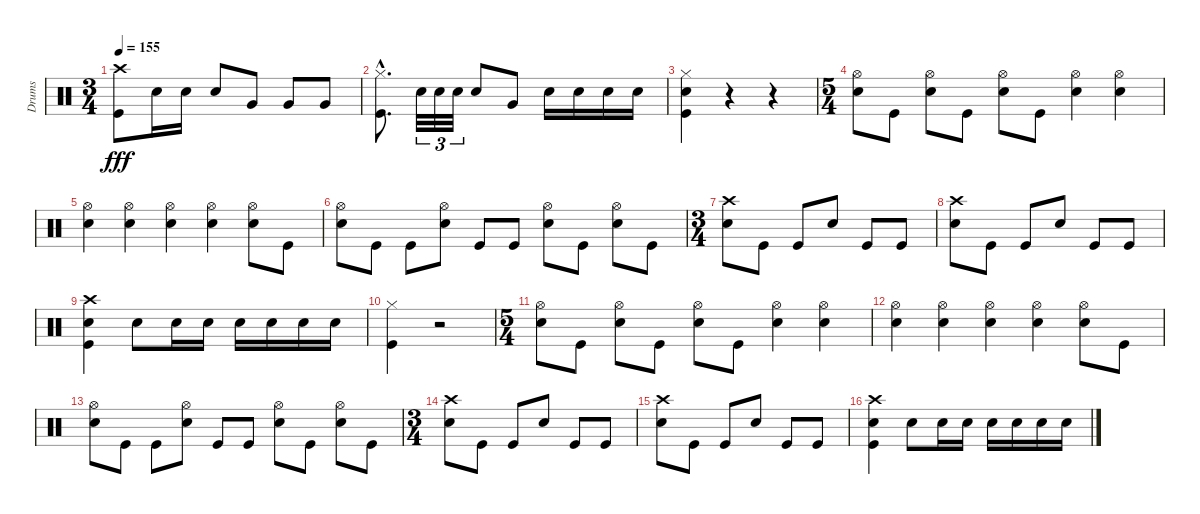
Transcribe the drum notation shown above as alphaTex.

\track ("Drums" "Drums") {instrument percussion}
\staff {score}
\articulation defaults
\ts (3 4)
\tempo 155
\clef neutral
\ks c
("Crash high (hit)" "Kick (hit)").8{dy fff} "Snare (hit) 2".16 "Snare (hit) 2".16 "Snare (hit) 2".8 "Very Low Tom (hit)".8 "Very Low Tom (hit)".8 "Very Low Tom (hit)".8 |
("Hi-Hat (closed)"{hac} "Kick (hit)"{hac}).8{d} "Snare (hit) 2".32{tu (3 2)} "Snare (hit) 2".32{tu (3 2)} "Snare (hit) 2".32{tu (3 2)} "Snare (hit) 2".8 "Very Low Tom (hit)".8 "Snare (hit) 2".16 "Snare (hit) 2".16 "Snare (hit) 2".16 "Snare (hit) 2".16 |
("Hi-Hat (closed)" "Snare (hit) 2" "Kick (hit)").4 r.4 r.4 |
\ts (5 4)
("Hi-Hat (open)" "Snare (hit) 2").8 "Kick (hit)".8 ("Hi-Hat (open)" "Snare (hit) 2").8 "Kick (hit)".8 ("Hi-Hat (open)" "Snare (hit) 2").8 "Kick (hit)".8 ("Hi-Hat (open)" "Snare (hit) 2").4 ("Hi-Hat (open)" "Snare (hit) 2").4 |
("Hi-Hat (open)" "Snare (hit) 2").4 ("Hi-Hat (open)" "Snare (hit) 2").4 ("Hi-Hat (open)" "Snare (hit) 2").4 ("Hi-Hat (open)" "Snare (hit) 2").4 ("Hi-Hat (open)" "Snare (hit) 2").8 "Kick (hit)".8 |
("Hi-Hat (open)" "Snare (hit) 2").8 "Kick (hit)".8 "Kick (hit)".8 ("Hi-Hat (open)" "Snare (hit) 2").8 "Kick (hit)".8 "Kick (hit)".8 ("Hi-Hat (open)" "Snare (hit) 2").8 "Kick (hit)".8 ("Hi-Hat (open)" "Snare (hit) 2").8 "Kick (hit)".8 |
\ts (3 4)
("Crash high (hit)" "Snare (hit) 2").8 "Kick (hit)".8 "Kick (hit)".8 "Snare (hit) 2".8 "Kick (hit)".8 "Kick (hit)".8 |
("Crash high (hit)" "Snare (hit) 2").8 "Kick (hit)".8 "Kick (hit)".8 "Snare (hit) 2".8 "Kick (hit)".8 "Kick (hit)".8 |
("Crash high (hit)" "Snare (hit) 2" "Kick (hit)").4 "Snare (hit) 2".8 "Snare (hit) 2".16 "Snare (hit) 2".16 "Snare (hit) 2".16 "Snare (hit) 2".16 "Snare (hit) 2".16 "Snare (hit) 2".16 |
("Hi-Hat (closed)" "Kick (hit)").4 r.2 |
\ts (5 4)
("Hi-Hat (open)" "Snare (hit) 2").8 "Kick (hit)".8 ("Hi-Hat (open)" "Snare (hit) 2").8 "Kick (hit)".8 ("Hi-Hat (open)" "Snare (hit) 2").8 "Kick (hit)".8 ("Hi-Hat (open)" "Snare (hit) 2").4 ("Hi-Hat (open)" "Snare (hit) 2").4 |
("Hi-Hat (open)" "Snare (hit) 2").4 ("Hi-Hat (open)" "Snare (hit) 2").4 ("Hi-Hat (open)" "Snare (hit) 2").4 ("Hi-Hat (open)" "Snare (hit) 2").4 ("Hi-Hat (open)" "Snare (hit) 2").8 "Kick (hit)".8 |
("Hi-Hat (open)" "Snare (hit) 2").8 "Kick (hit)".8 "Kick (hit)".8 ("Hi-Hat (open)" "Snare (hit) 2").8 "Kick (hit)".8 "Kick (hit)".8 ("Hi-Hat (open)" "Snare (hit) 2").8 "Kick (hit)".8 ("Hi-Hat (open)" "Snare (hit) 2").8 "Kick (hit)".8 |
\ts (3 4)
("Crash high (hit)" "Snare (hit) 2").8 "Kick (hit)".8 "Kick (hit)".8 "Snare (hit) 2".8 "Kick (hit)".8 "Kick (hit)".8 |
("Crash high (hit)" "Snare (hit) 2").8 "Kick (hit)".8 "Kick (hit)".8 "Snare (hit) 2".8 "Kick (hit)".8 "Kick (hit)".8 |
("Crash high (hit)" "Snare (hit) 2" "Kick (hit)").4 "Snare (hit) 2".8 "Snare (hit) 2".16 "Snare (hit) 2".16 "Snare (hit) 2".16 "Snare (hit) 2".16 "Snare (hit) 2".16 "Snare (hit) 2".16
